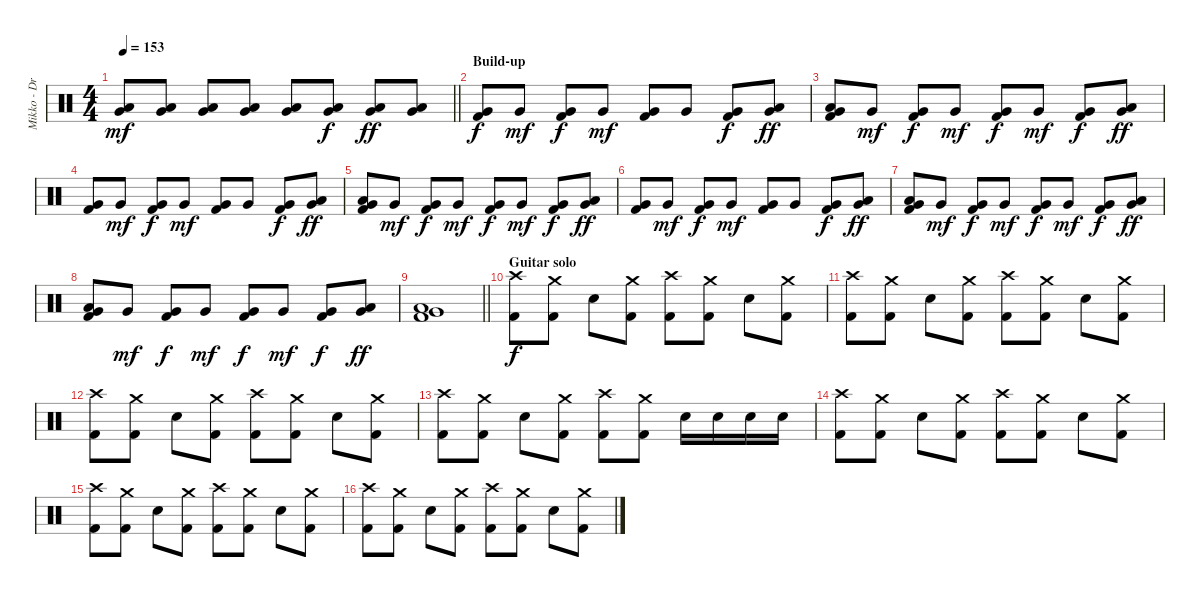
\track ("Mikko - Drums" "Mikko - Dr") {instrument percussion}
\staff {score}
\articulation defaults
\ts (4 4)
\tempo 153
\clef neutral
\barLineRight lightlight
\ks c
("Low Tom (hit)" "Very Low Tom (hit)").8{dy mf} ("Low Tom (hit)" "Very Low Tom (hit)").8 ("Low Tom (hit)" "Very Low Tom (hit)").8 ("Low Tom (hit)" "Very Low Tom (hit)").8 ("Low Tom (hit)" "Very Low Tom (hit)").8 ("Low Tom (hit)" "Very Low Tom (hit)").8{dy f} ("Low Tom (hit)" "Very Low Tom (hit)").8{dy ff} ("Low Tom (hit)" "Very Low Tom (hit)").8 |
\section ("" "Build-up")
("Very Low Tom (hit)" "Kick (hit) 2").8{dy f} "Very Low Tom (hit)".8{dy mf} ("Very Low Tom (hit)" "Kick (hit) 2").8{dy f} "Very Low Tom (hit)".8{dy mf} ("Very Low Tom (hit)" "Kick (hit) 2").8 "Very Low Tom (hit)".8 ("Very Low Tom (hit)" "Kick (hit) 2").8{dy f} ("Low Tom (hit)" "Very Low Tom (hit)").8{dy ff} |
("Low Tom (hit)" "Very Low Tom (hit)" "Kick (hit) 2").8 "Very Low Tom (hit)".8{dy mf} ("Very Low Tom (hit)" "Kick (hit) 2").8{dy f} "Very Low Tom (hit)".8{dy mf} ("Very Low Tom (hit)" "Kick (hit) 2").8{dy f} "Very Low Tom (hit)".8{dy mf} ("Very Low Tom (hit)" "Kick (hit) 2").8{dy f} ("Low Tom (hit)" "Very Low Tom (hit)").8{dy ff} |
("Very Low Tom (hit)" "Kick (hit) 2").8 "Very Low Tom (hit)".8{dy mf} ("Very Low Tom (hit)" "Kick (hit) 2").8{dy f} "Very Low Tom (hit)".8{dy mf} ("Very Low Tom (hit)" "Kick (hit) 2").8 "Very Low Tom (hit)".8 ("Very Low Tom (hit)" "Kick (hit) 2").8{dy f} ("Low Tom (hit)" "Very Low Tom (hit)").8{dy ff} |
("Low Tom (hit)" "Very Low Tom (hit)" "Kick (hit) 2").8 "Very Low Tom (hit)".8{dy mf} ("Very Low Tom (hit)" "Kick (hit) 2").8{dy f} "Very Low Tom (hit)".8{dy mf} ("Very Low Tom (hit)" "Kick (hit) 2").8{dy f} "Very Low Tom (hit)".8{dy mf} ("Very Low Tom (hit)" "Kick (hit) 2").8{dy f} ("Low Tom (hit)" "Very Low Tom (hit)").8{dy ff} |
("Very Low Tom (hit)" "Kick (hit) 2").8 "Very Low Tom (hit)".8{dy mf} ("Very Low Tom (hit)" "Kick (hit) 2").8{dy f} "Very Low Tom (hit)".8{dy mf} ("Very Low Tom (hit)" "Kick (hit) 2").8 "Very Low Tom (hit)".8 ("Very Low Tom (hit)" "Kick (hit) 2").8{dy f} ("Low Tom (hit)" "Very Low Tom (hit)").8{dy ff} |
("Low Tom (hit)" "Very Low Tom (hit)" "Kick (hit) 2").8 "Very Low Tom (hit)".8{dy mf} ("Very Low Tom (hit)" "Kick (hit) 2").8{dy f} "Very Low Tom (hit)".8{dy mf} ("Very Low Tom (hit)" "Kick (hit) 2").8{dy f} "Very Low Tom (hit)".8{dy mf} ("Very Low Tom (hit)" "Kick (hit) 2").8{dy f} ("Low Tom (hit)" "Very Low Tom (hit)").8{dy ff} |
("Low Tom (hit)" "Very Low Tom (hit)" "Kick (hit) 2").8 "Very Low Tom (hit)".8{dy mf} ("Very Low Tom (hit)" "Kick (hit) 2").8{dy f} "Very Low Tom (hit)".8{dy mf} ("Very Low Tom (hit)" "Kick (hit) 2").8{dy f} "Very Low Tom (hit)".8{dy mf} ("Very Low Tom (hit)" "Kick (hit) 2").8{dy f} ("Low Tom (hit)" "Very Low Tom (hit)").8{dy ff} |
\barLineRight lightlight
("Low Tom (hit)" "Very Low Tom (hit)" "Kick (hit) 2").1 |
\section ("" "Guitar solo")
("Crash high (hit)" "Kick (hit) 2").8{dy f} ("Crash medium (hit)" "Kick (hit) 2").8 "Snare (hit) 2".8 ("Crash medium (hit)" "Kick (hit) 2").8 ("Crash high (hit)" "Kick (hit) 2").8 ("Crash medium (hit)" "Kick (hit) 2").8 "Snare (hit) 2".8 ("Crash medium (hit)" "Kick (hit) 2").8 |
("Crash high (hit)" "Kick (hit) 2").8 ("Crash medium (hit)" "Kick (hit) 2").8 "Snare (hit) 2".8 ("Crash medium (hit)" "Kick (hit) 2").8 ("Crash high (hit)" "Kick (hit) 2").8 ("Crash medium (hit)" "Kick (hit) 2").8 "Snare (hit) 2".8 ("Crash medium (hit)" "Kick (hit) 2").8 |
("Crash high (hit)" "Kick (hit) 2").8 ("Crash medium (hit)" "Kick (hit) 2").8 "Snare (hit) 2".8 ("Crash medium (hit)" "Kick (hit) 2").8 ("Crash high (hit)" "Kick (hit) 2").8 ("Crash medium (hit)" "Kick (hit) 2").8 "Snare (hit) 2".8 ("Crash medium (hit)" "Kick (hit) 2").8 |
("Crash high (hit)" "Kick (hit) 2").8 ("Crash medium (hit)" "Kick (hit) 2").8 "Snare (hit) 2".8 ("Crash medium (hit)" "Kick (hit) 2").8 ("Crash high (hit)" "Kick (hit) 2").8 ("Crash medium (hit)" "Kick (hit) 2").8 "Snare (hit) 2".16 "Snare (hit) 2".16 "Snare (hit) 2".16 "Snare (hit) 2".16 |
("Crash high (hit)" "Kick (hit) 2").8 ("Crash medium (hit)" "Kick (hit) 2").8 "Snare (hit) 2".8 ("Crash medium (hit)" "Kick (hit) 2").8 ("Crash high (hit)" "Kick (hit) 2").8 ("Crash medium (hit)" "Kick (hit) 2").8 "Snare (hit) 2".8 ("Crash medium (hit)" "Kick (hit) 2").8 |
("Crash high (hit)" "Kick (hit) 2").8 ("Crash medium (hit)" "Kick (hit) 2").8 "Snare (hit) 2".8 ("Crash medium (hit)" "Kick (hit) 2").8 ("Crash high (hit)" "Kick (hit) 2").8 ("Crash medium (hit)" "Kick (hit) 2").8 "Snare (hit) 2".8 ("Crash medium (hit)" "Kick (hit) 2").8 |
("Crash high (hit)" "Kick (hit) 2").8 ("Crash medium (hit)" "Kick (hit) 2").8 "Snare (hit) 2".8 ("Crash medium (hit)" "Kick (hit) 2").8 ("Crash high (hit)" "Kick (hit) 2").8 ("Crash medium (hit)" "Kick (hit) 2").8 "Snare (hit) 2".8 ("Crash medium (hit)" "Kick (hit) 2").8
